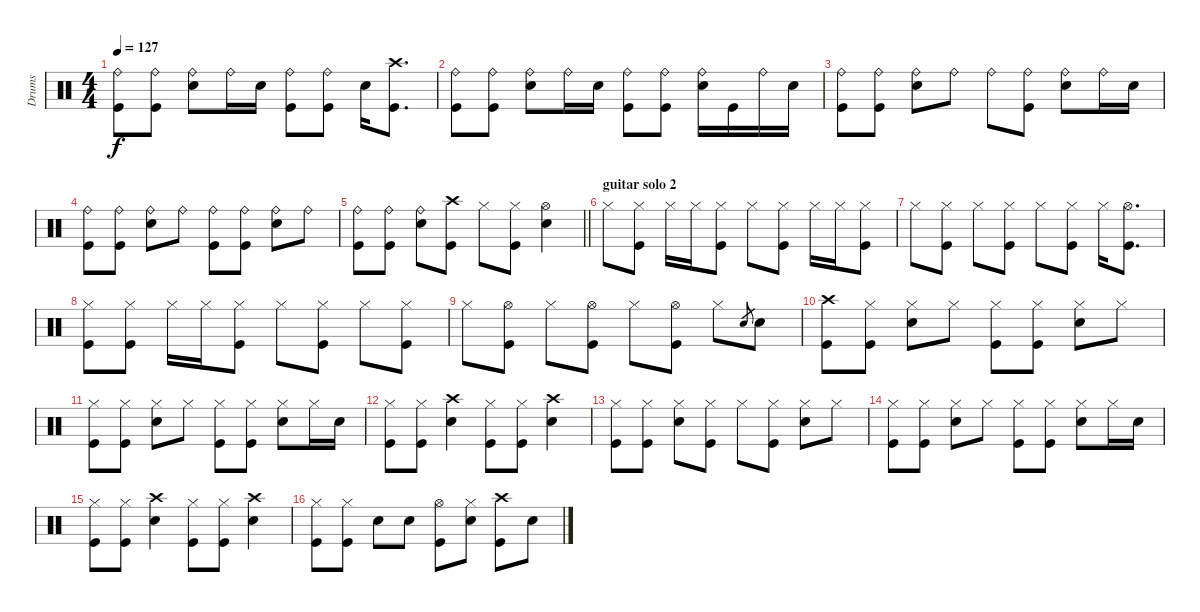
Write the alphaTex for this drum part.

\track ("Drums" "Drums") {instrument percussion}
\staff {score}
\articulation defaults
\ts (4 4)
\tempo 127
\clef neutral
\ks c
("Kick (hit)" "Ride (bell)").8{dy f} ("Kick (hit)" "Ride (bell)").8 ("Snare (hit) 2" "Ride (bell)").8 "Ride (bell)".16 "Snare (hit) 2".16 ("Ride (bell)" "Kick (hit)").8 ("Ride (bell)" "Kick (hit)").8 "Snare (hit) 2".16 ("Crash high (hit)" "Kick (hit)").8{d} |
("Ride (bell)" "Kick (hit)").8 ("Ride (bell)" "Kick (hit)").8 ("Ride (bell)" "Snare (hit) 2").8 "Ride (bell)".16 "Snare (hit) 2".16 ("Kick (hit)" "Ride (bell)").8 ("Ride (bell)" "Kick (hit)").8 ("Snare (hit) 2" "Ride (bell)").16 "Kick (hit)".16 "Ride (bell)".16 "Snare (hit) 2".16 |
("Ride (bell)" "Kick (hit)").8 ("Ride (bell)" "Kick (hit)").8 ("Ride (bell)" "Snare (hit) 2").8 "Ride (bell)".8 "Ride (bell)".8 ("Ride (bell)" "Kick (hit)").8 ("Ride (bell)" "Snare (hit) 2").8 "Ride (bell)".16 "Snare (hit) 2".16 |
("Kick (hit)" "Ride (bell)").8 ("Kick (hit)" "Ride (bell)").8 ("Snare (hit) 2" "Ride (bell)").8 "Ride (bell)".8 ("Kick (hit)" "Ride (bell)").8 ("Kick (hit)" "Ride (bell)").8 ("Snare (hit) 2" "Ride (bell)").8 "Ride (bell)".8 |
\barLineRight lightlight
("Ride (bell)" "Kick (hit)").8 ("Ride (bell)" "Kick (hit)").8 ("Ride (bell)" "Snare (hit) 2").8 ("Crash high (hit)" "Kick (hit)").8 "Hi-Hat (closed)".8 ("Kick (hit)" "Hi-Hat (closed)").8 ("Snare (hit) 2" "Hi-Hat (open)").4 |
\section ("" "guitar solo 2")
"Hi-Hat (closed)".8 ("Hi-Hat (closed)" "Kick (hit)").8 "Hi-Hat (closed)".16 "Hi-Hat (closed)".16 ("Hi-Hat (closed)" "Kick (hit)").8 "Hi-Hat (closed)".8 ("Hi-Hat (closed)" "Kick (hit)").8 "Hi-Hat (closed)".16 "Hi-Hat (closed)".16 ("Hi-Hat (closed)" "Kick (hit)").8 |
"Hi-Hat (closed)".8 ("Hi-Hat (closed)" "Kick (hit)").8 "Hi-Hat (closed)".8 ("Hi-Hat (closed)" "Kick (hit)").8 "Hi-Hat (closed)".8 ("Hi-Hat (closed)" "Kick (hit)").8 "Hi-Hat (closed)".16 ("Hi-Hat (open)" "Kick (hit)").8{d} |
("Hi-Hat (closed)" "Kick (hit)").8 ("Hi-Hat (closed)" "Kick (hit)").8 "Hi-Hat (closed)".16 "Hi-Hat (closed)".16 ("Hi-Hat (closed)" "Kick (hit)").8 "Hi-Hat (closed)".8 ("Hi-Hat (closed)" "Kick (hit)").8 "Hi-Hat (closed)".8 ("Hi-Hat (closed)" "Kick (hit)").8 |
"Hi-Hat (closed)".8 ("Hi-Hat (open)" "Kick (hit)").8 "Hi-Hat (closed)".8 ("Hi-Hat (open)" "Kick (hit)").8 "Hi-Hat (closed)".8 ("Hi-Hat (open)" "Kick (hit)").8 "Hi-Hat (closed)".8 "Snare (hit) 2".8{gr} "Snare (hit) 2".8 |
("Crash high (hit)" "Kick (hit)").8 ("Hi-Hat (closed)" "Kick (hit)").8 ("Hi-Hat (closed)" "Snare (hit) 2").8 "Hi-Hat (closed)".8 ("Hi-Hat (closed)" "Kick (hit)").8 ("Hi-Hat (closed)" "Kick (hit)").8 ("Hi-Hat (closed)" "Snare (hit) 2").8 "Hi-Hat (closed)".8 |
("Kick (hit)" "Hi-Hat (closed)").8 ("Kick (hit)" "Hi-Hat (closed)").8 ("Snare (hit) 2" "Hi-Hat (closed)").8 "Hi-Hat (closed)".8 ("Kick (hit)" "Hi-Hat (closed)").8 ("Kick (hit)" "Hi-Hat (closed)").8 ("Snare (hit) 2" "Hi-Hat (closed)").8 "Hi-Hat (closed)".16 "Snare (hit) 2".16 |
("Hi-Hat (closed)" "Kick (hit)").8 ("Hi-Hat (closed)" "Kick (hit)").8 ("Crash high (hit)" "Snare (hit) 2").4 ("Hi-Hat (closed)" "Kick (hit)").8 ("Hi-Hat (closed)" "Kick (hit)").8 ("Crash high (hit)" "Snare (hit) 2").4 |
("Kick (hit)" "Hi-Hat (closed)").8 ("Kick (hit)" "Hi-Hat (closed)").8 ("Snare (hit) 2" "Hi-Hat (closed)").8 ("Kick (hit)" "Hi-Hat (closed)").8 "Hi-Hat (closed)".8 ("Kick (hit)" "Hi-Hat (closed)").8 ("Snare (hit) 2" "Hi-Hat (closed)").8 "Hi-Hat (closed)".8 |
("Hi-Hat (closed)" "Kick (hit)").8 ("Hi-Hat (closed)" "Kick (hit)").8 ("Hi-Hat (closed)" "Snare (hit) 2").8 "Hi-Hat (closed)".8 ("Hi-Hat (closed)" "Kick (hit)").8 ("Hi-Hat (closed)" "Kick (hit)").8 ("Hi-Hat (closed)" "Snare (hit) 2").8 "Hi-Hat (closed)".16 "Snare (hit) 2".16 |
("Hi-Hat (closed)" "Kick (hit)").8 ("Kick (hit)" "Hi-Hat (closed)").8 ("Crash high (hit)" "Snare (hit) 2").4 ("Hi-Hat (closed)" "Kick (hit)").8 ("Kick (hit)" "Hi-Hat (closed)").8 ("Crash high (hit)" "Snare (hit) 2").4 |
("Hi-Hat (closed)" "Kick (hit)").8 ("Kick (hit)" "Hi-Hat (closed)").8 "Snare (hit) 2".8 "Snare (hit) 2".8 ("Hi-Hat (open)" "Kick (hit)").8 ("Snare (hit) 2" "Hi-Hat (closed)").8 ("Crash high (hit)" "Kick (hit)").8 "Snare (hit) 2".8
